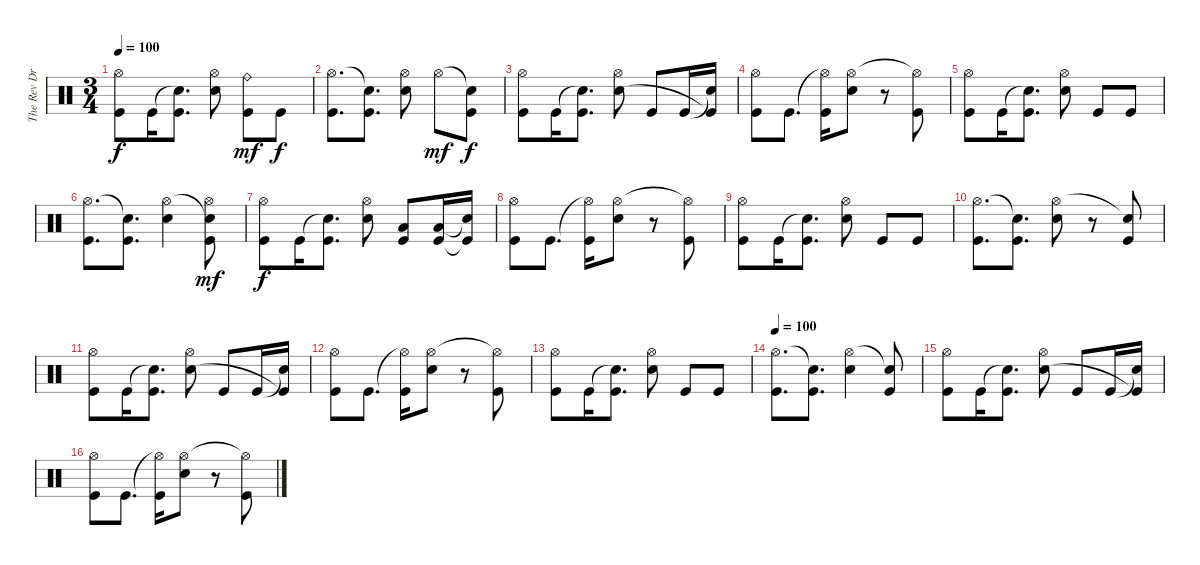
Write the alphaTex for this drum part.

\track ("The Rev Drums" "The Rev Dr") {instrument percussion}
\staff {score}
\articulation defaults
\ts (3 4)
\tempo 100
\clef neutral
\ks c
("Hi-Hat (open)" "Kick (hit)").8{dy f} "Kick (hit)".16 ("Snare (hit)"{t} "Kick (hit)").8{d} ("Hi-Hat (open)" "Electric Snare (hit)").8 ("Ride (bell)" "Kick (hit)").8{dy mf} "Kick (hit)".8{dy f} |
("Hi-Hat (open)" "Kick (hit)").8{d} ("Snare (hit)"{t} "Kick (hit)").8{d} ("Hi-Hat (open)" "Electric Snare (hit)").8 "Hi-Hat (open)".8{dy mf} ("Snare (hit)"{t} "Kick (hit)").8{dy f} |
("Hi-Hat (open)" "Kick (hit)").8 "Kick (hit)".16 ("Snare (hit)"{t} "Kick (hit)").8{d} ("Hi-Hat (open)" "Electric Snare (hit)").8 "Kick (hit)".8 "Kick (hit)".16 ("Snare (hit)"{t} "Kick (hit)"{t}).16 |
("Hi-Hat (open)" "Kick (hit)").8 "Kick (hit)".8{d} ("Hi-Hat (open)"{t} "Kick (hit)").16 ("Hi-Hat (open)" "Electric Snare (hit)").8 r.8 ("Hi-Hat (open)"{t} "Kick (hit)").8 |
("Hi-Hat (open)" "Kick (hit)").8 "Kick (hit)".16 ("Snare (hit)"{t} "Kick (hit)").8{d} ("Hi-Hat (open)" "Electric Snare (hit)").8 "Kick (hit)".8 "Kick (hit)".8 |
("Hi-Hat (open)" "Kick (hit)").8{d} ("Snare (hit)"{t} "Kick (hit)").8{d} ("Hi-Hat (open)" "Electric Snare (hit)").4 ("Snare (hit)"{t} "Hi-Hat (open)" "Kick (hit)").8{dy mf} |
("Hi-Hat (open)" "Kick (hit)").8{dy f} "Kick (hit)".16 ("Snare (hit)"{t} "Kick (hit)").8{d} ("Hi-Hat (open)" "Electric Snare (hit)").8 ("Low Floor Tom (hit)" "Kick (hit)").8 ("Low Floor Tom (hit)" "Kick (hit)").16 ("Snare (hit)"{t} "Kick (hit)"{t}).16 |
("Hi-Hat (open)" "Kick (hit)").8 "Kick (hit)".8{d} ("Hi-Hat (open)"{t} "Kick (hit)").16 ("Hi-Hat (open)" "Electric Snare (hit)").8 r.8 ("Hi-Hat (open)"{t} "Kick (hit)").8 |
("Hi-Hat (open)" "Kick (hit)").8 "Kick (hit)".16 ("Snare (hit)"{t} "Kick (hit)").8{d} ("Hi-Hat (open)" "Electric Snare (hit)").8 "Kick (hit)".8 "Kick (hit)".8 |
("Hi-Hat (open)" "Kick (hit)").8{d} ("Snare (hit)"{t} "Kick (hit)").8{d} ("Hi-Hat (open)" "Electric Snare (hit)").8 r.8 ("Snare (hit)"{t} "Kick (hit)").8 |
("Hi-Hat (open)" "Kick (hit)").8 "Kick (hit)".16 ("Snare (hit)"{t} "Kick (hit)").8{d} ("Hi-Hat (open)" "Electric Snare (hit)").8 "Kick (hit)".8 "Kick (hit)".16 ("Snare (hit)"{t} "Kick (hit)"{t}).16 |
("Hi-Hat (open)" "Kick (hit)").8 "Kick (hit)".8{d} ("Hi-Hat (open)"{t} "Kick (hit)").16 ("Hi-Hat (open)" "Electric Snare (hit)").8 r.8 ("Hi-Hat (open)"{t} "Kick (hit)").8 |
("Hi-Hat (open)" "Kick (hit)").8 "Kick (hit)".16 ("Snare (hit)"{t} "Kick (hit)").8{d} ("Hi-Hat (open)" "Electric Snare (hit)").8 "Kick (hit)".8 "Kick (hit)".8 |
\tempo 100
("Hi-Hat (open)" "Kick (hit)").8{d} ("Snare (hit)"{t} "Kick (hit)").8{d} ("Hi-Hat (open)" "Electric Snare (hit)").4 ("Snare (hit)"{t} "Kick (hit)").8 |
("Hi-Hat (open)" "Kick (hit)").8 "Kick (hit)".16 ("Snare (hit)"{t} "Kick (hit)").8{d} ("Hi-Hat (open)" "Electric Snare (hit)").8 "Kick (hit)".8 "Kick (hit)".16 ("Snare (hit)"{t} "Kick (hit)"{t}).16 |
("Hi-Hat (open)" "Kick (hit)").8 "Kick (hit)".8{d} ("Hi-Hat (open)"{t} "Kick (hit)").16 ("Hi-Hat (open)" "Electric Snare (hit)").8 r.8 ("Hi-Hat (open)"{t} "Kick (hit)").8
